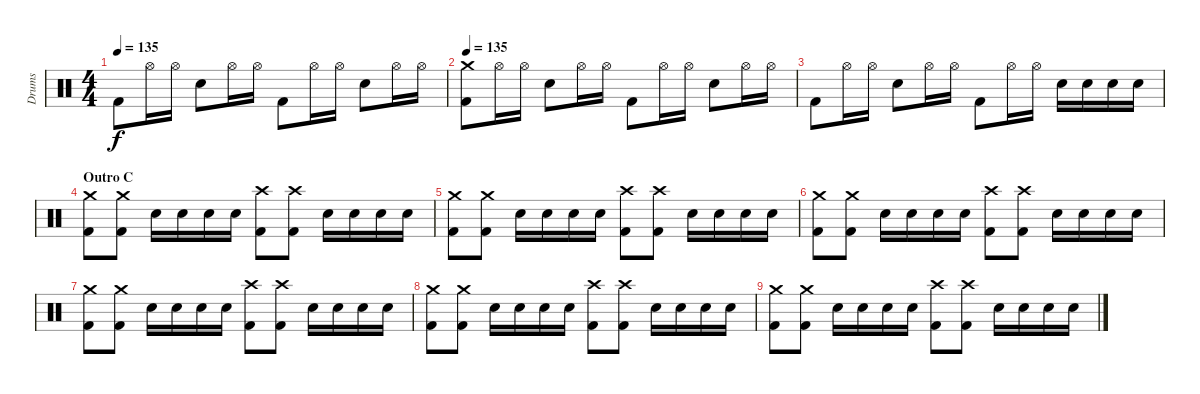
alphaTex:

\track ("Drums" "Drums") {instrument percussion}
\staff {score}
\articulation defaults
\ts (4 4)
\tempo 135
\clef neutral
\ks c "Kick (hit) 2".8{dy f} "Hi-Hat (open)".16 "Hi-Hat (open)".16 "Electric Snare (hit)".8 "Hi-Hat (open)".16 "Hi-Hat (open)".16 "Kick (hit) 2".8 "Hi-Hat (open)".16 "Hi-Hat (open)".16 "Electric Snare (hit)".8 "Hi-Hat (open)".16 "Hi-Hat (open)".16
|
\tempo 135
("Crash medium (hit)" "Kick (hit) 2").8 "Hi-Hat (open)".16 "Hi-Hat (open)".16 "Electric Snare (hit)".8 "Hi-Hat (open)".16 "Hi-Hat (open)".16 "Kick (hit) 2".8 "Hi-Hat (open)".16 "Hi-Hat (open)".16 "Electric Snare (hit)".8 "Hi-Hat (open)".16 "Hi-Hat (open)".16 |
"Kick (hit) 2".8 "Hi-Hat (open)".16 "Hi-Hat (open)".16 "Electric Snare (hit)".8 "Hi-Hat (open)".16 "Hi-Hat (open)".16 "Kick (hit) 2".8 "Hi-Hat (open)".16 "Hi-Hat (open)".16 "Electric Snare (hit)".16 "Electric Snare (hit)".16 "Electric Snare (hit)".16 "Electric Snare (hit)".16 |
\section ("" "Outro C")
("Crash medium (hit)" "Kick (hit) 2").8 ("Crash medium (hit)" "Kick (hit) 2").8 "Electric Snare (hit)".16 "Electric Snare (hit)".16 "Electric Snare (hit)".16 "Electric Snare (hit)".16 ("Crash high (hit)" "Kick (hit) 2").8 ("Crash high (hit)" "Kick (hit) 2").8 "Electric Snare (hit)".16 "Electric Snare (hit)".16 "Electric Snare (hit)".16 "Electric Snare (hit)".16 |
("Crash medium (hit)" "Kick (hit) 2").8 ("Crash medium (hit)" "Kick (hit) 2").8 "Electric Snare (hit)".16 "Electric Snare (hit)".16 "Electric Snare (hit)".16 "Electric Snare (hit)".16 ("Crash high (hit)" "Kick (hit) 2").8 ("Crash high (hit)" "Kick (hit) 2").8 "Electric Snare (hit)".16 "Electric Snare (hit)".16 "Electric Snare (hit)".16 "Electric Snare (hit)".16 |
("Crash medium (hit)" "Kick (hit) 2").8 ("Crash medium (hit)" "Kick (hit) 2").8 "Electric Snare (hit)".16 "Electric Snare (hit)".16 "Electric Snare (hit)".16 "Electric Snare (hit)".16 ("Crash high (hit)" "Kick (hit) 2").8 ("Crash high (hit)" "Kick (hit) 2").8 "Electric Snare (hit)".16 "Electric Snare (hit)".16 "Electric Snare (hit)".16 "Electric Snare (hit)".16 |
("Crash medium (hit)" "Kick (hit) 2").8 ("Crash medium (hit)" "Kick (hit) 2").8 "Electric Snare (hit)".16 "Electric Snare (hit)".16 "Electric Snare (hit)".16 "Electric Snare (hit)".16 ("Crash high (hit)" "Kick (hit) 2").8 ("Crash high (hit)" "Kick (hit) 2").8 "Electric Snare (hit)".16 "Electric Snare (hit)".16 "Electric Snare (hit)".16 "Electric Snare (hit)".16 |
("Crash medium (hit)" "Kick (hit) 2").8 ("Crash medium (hit)" "Kick (hit) 2").8 "Electric Snare (hit)".16 "Electric Snare (hit)".16 "Electric Snare (hit)".16 "Electric Snare (hit)".16 ("Crash high (hit)" "Kick (hit) 2").8 ("Crash high (hit)" "Kick (hit) 2").8 "Electric Snare (hit)".16 "Electric Snare (hit)".16 "Electric Snare (hit)".16 "Electric Snare (hit)".16 |
("Crash medium (hit)" "Kick (hit) 2").8 ("Crash medium (hit)" "Kick (hit) 2").8 "Electric Snare (hit)".16 "Electric Snare (hit)".16 "Electric Snare (hit)".16 "Electric Snare (hit)".16 ("Crash high (hit)" "Kick (hit) 2").8 ("Crash high (hit)" "Kick (hit) 2").8 "Electric Snare (hit)".16 "Electric Snare (hit)".16 "Electric Snare (hit)".16 "Electric Snare (hit)".16
